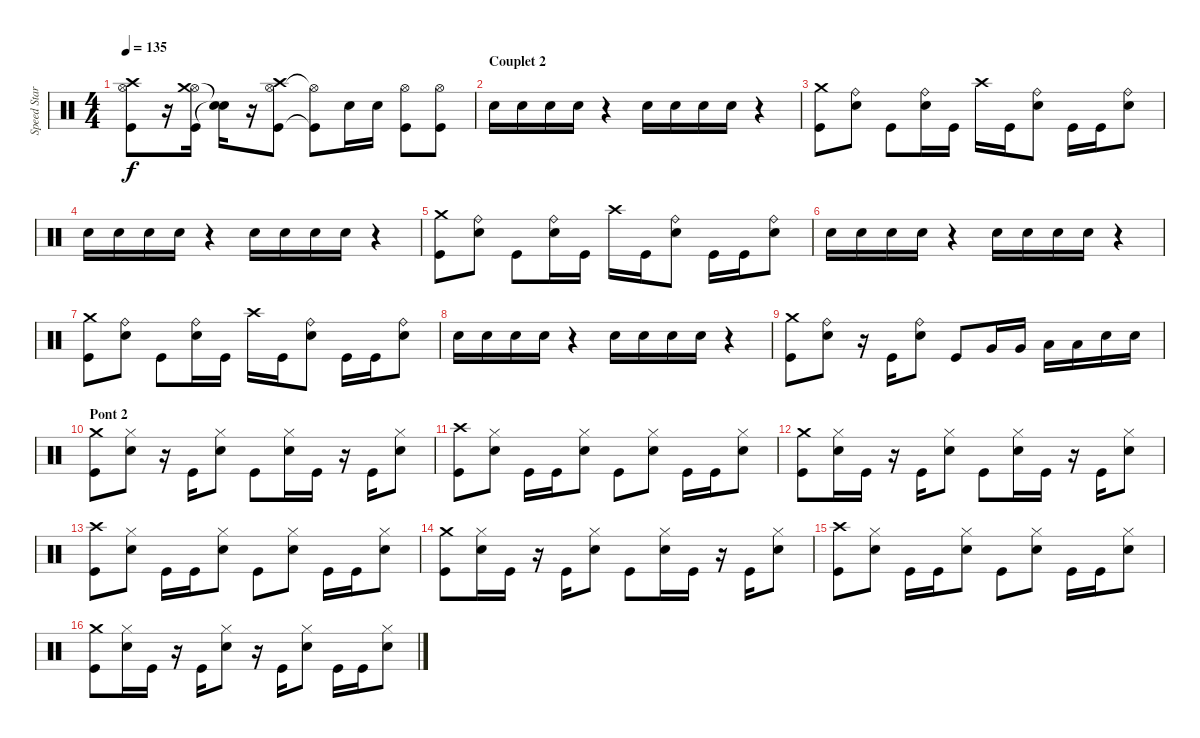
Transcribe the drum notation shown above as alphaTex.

\track ("Speed Star" "Speed Star") {instrument percussion}
\staff {score}
\articulation defaults
\ts (4 4)
\tempo 135
\clef neutral
\ks c
("Kick (hit)" "Hi-Hat (open)" "Crash high (hit)").8{dy f} r.16 ("Kick (hit)" "Hi-Hat (open)" "Crash medium (hit)").16 ("Snare (hit)"{t} "Snare (hit)"{t}).16 r.16 ("Kick (hit)" "Hi-Hat (open)" "Crash high (hit)").8 ("Kick (hit)"{t} "Hi-Hat (open)"{t}).8 "Snare (hit) 2".16 "Snare (hit) 2".16 ("Kick (hit)" "Hi-Hat (open)").8 ("Kick (hit)" "Hi-Hat (open)").8 |
\section ("" "Couplet 2")
"Snare (hit) 2".16 "Snare (hit) 2".16 "Snare (hit) 2".16 "Snare (hit) 2".16 r.4 "Snare (hit) 2".16 "Snare (hit) 2".16 "Snare (hit) 2".16 "Snare (hit) 2".16 r.4 |
("Kick (hit)" "Crash medium (hit)").8 ("Snare (hit) 2" "Ride (bell)").8 "Kick (hit)".8 ("Snare (hit) 2" "Ride (bell)").16 "Kick (hit)".16 "Crash high (hit)".16 "Kick (hit)".16 ("Snare (hit) 2" "Ride (bell)").8 "Kick (hit)".16 "Kick (hit)".16 ("Snare (hit) 2" "Ride (bell)").8 |
"Snare (hit) 2".16 "Snare (hit) 2".16 "Snare (hit) 2".16 "Snare (hit) 2".16 r.4 "Snare (hit) 2".16 "Snare (hit) 2".16 "Snare (hit) 2".16 "Snare (hit) 2".16 r.4 |
("Kick (hit)" "Crash medium (hit)").8 ("Snare (hit) 2" "Ride (bell)").8 "Kick (hit)".8 ("Snare (hit) 2" "Ride (bell)").16 "Kick (hit)".16 "Crash high (hit)".16 "Kick (hit)".16 ("Snare (hit) 2" "Ride (bell)").8 "Kick (hit)".16 "Kick (hit)".16 ("Snare (hit) 2" "Ride (bell)").8 |
"Snare (hit) 2".16 "Snare (hit) 2".16 "Snare (hit) 2".16 "Snare (hit) 2".16 r.4 "Snare (hit) 2".16 "Snare (hit) 2".16 "Snare (hit) 2".16 "Snare (hit) 2".16 r.4 |
("Kick (hit)" "Crash medium (hit)").8 ("Snare (hit) 2" "Ride (bell)").8 "Kick (hit)".8 ("Snare (hit) 2" "Ride (bell)").16 "Kick (hit)".16 "Crash high (hit)".16 "Kick (hit)".16 ("Snare (hit) 2" "Ride (bell)").8 "Kick (hit)".16 "Kick (hit)".16 ("Snare (hit) 2" "Ride (bell)").8 |
"Snare (hit) 2".16 "Snare (hit) 2".16 "Snare (hit) 2".16 "Snare (hit) 2".16 r.4 "Snare (hit) 2".16 "Snare (hit) 2".16 "Snare (hit) 2".16 "Snare (hit) 2".16 r.4 |
("Kick (hit)" "Crash medium (hit)").8 ("Snare (hit) 2" "Ride (bell)").8 r.16 "Kick (hit)".16 ("Snare (hit) 2" "Ride (bell)").8 "Kick (hit)".8 "Very Low Tom (hit)".16 "Very Low Tom (hit)".16 "Low Floor Tom (hit)".16 "Low Floor Tom (hit)".16 "Snare (hit) 2".16 "Snare (hit) 2".16 |
\section ("" "Pont 2")
("Kick (hit)" "Crash medium (hit)").8 ("Snare (hit) 2" "Hi-Hat (closed)").8 r.16 "Kick (hit)".16 ("Snare (hit) 2" "Hi-Hat (closed)").8 "Kick (hit)".8 ("Snare (hit) 2" "Hi-Hat (closed)").16 "Kick (hit)".16 r.16 "Kick (hit)".16 ("Snare (hit) 2" "Hi-Hat (closed)").8 |
("Kick (hit)" "Crash high (hit)").8 ("Snare (hit) 2" "Hi-Hat (closed)").8 "Kick (hit)".16 "Kick (hit)".16 ("Snare (hit) 2" "Hi-Hat (closed)").8 "Kick (hit)".8 ("Snare (hit) 2" "Hi-Hat (closed)").8 "Kick (hit)".16 "Kick (hit)".16 ("Snare (hit) 2" "Hi-Hat (closed)").8 |
("Kick (hit)" "Crash medium (hit)").8 ("Snare (hit) 2" "Hi-Hat (closed)").16 "Kick (hit)".16 r.16 "Kick (hit)".16 ("Snare (hit) 2" "Hi-Hat (closed)").8 "Kick (hit)".8 ("Snare (hit) 2" "Hi-Hat (closed)").16 "Kick (hit)".16 r.16 "Kick (hit)".16 ("Snare (hit) 2" "Hi-Hat (closed)").8 |
("Kick (hit)" "Crash high (hit)").8 ("Snare (hit) 2" "Hi-Hat (closed)").8 "Kick (hit)".16 "Kick (hit)".16 ("Snare (hit) 2" "Hi-Hat (closed)").8 "Kick (hit)".8 ("Snare (hit) 2" "Hi-Hat (closed)").8 "Kick (hit)".16 "Kick (hit)".16 ("Snare (hit) 2" "Hi-Hat (closed)").8 |
("Kick (hit)" "Crash medium (hit)").8 ("Snare (hit) 2" "Hi-Hat (closed)").16 "Kick (hit)".16 r.16 "Kick (hit)".16 ("Snare (hit) 2" "Hi-Hat (closed)").8 "Kick (hit)".8 ("Snare (hit) 2" "Hi-Hat (closed)").16 "Kick (hit)".16 r.16 "Kick (hit)".16 ("Snare (hit) 2" "Hi-Hat (closed)").8 |
("Kick (hit)" "Crash high (hit)").8 ("Snare (hit) 2" "Hi-Hat (closed)").8 "Kick (hit)".16 "Kick (hit)".16 ("Snare (hit) 2" "Hi-Hat (closed)").8 "Kick (hit)".8 ("Snare (hit) 2" "Hi-Hat (closed)").8 "Kick (hit)".16 "Kick (hit)".16 ("Snare (hit) 2" "Hi-Hat (closed)").8 |
("Kick (hit)" "Crash medium (hit)").8 ("Snare (hit) 2" "Hi-Hat (closed)").16 "Kick (hit)".16 r.16 "Kick (hit)".16 ("Snare (hit) 2" "Hi-Hat (closed)").8 r.16 "Kick (hit)".16 ("Snare (hit) 2" "Hi-Hat (closed)").8 "Kick (hit)".16 "Kick (hit)".16 ("Snare (hit) 2" "Hi-Hat (closed)").8
